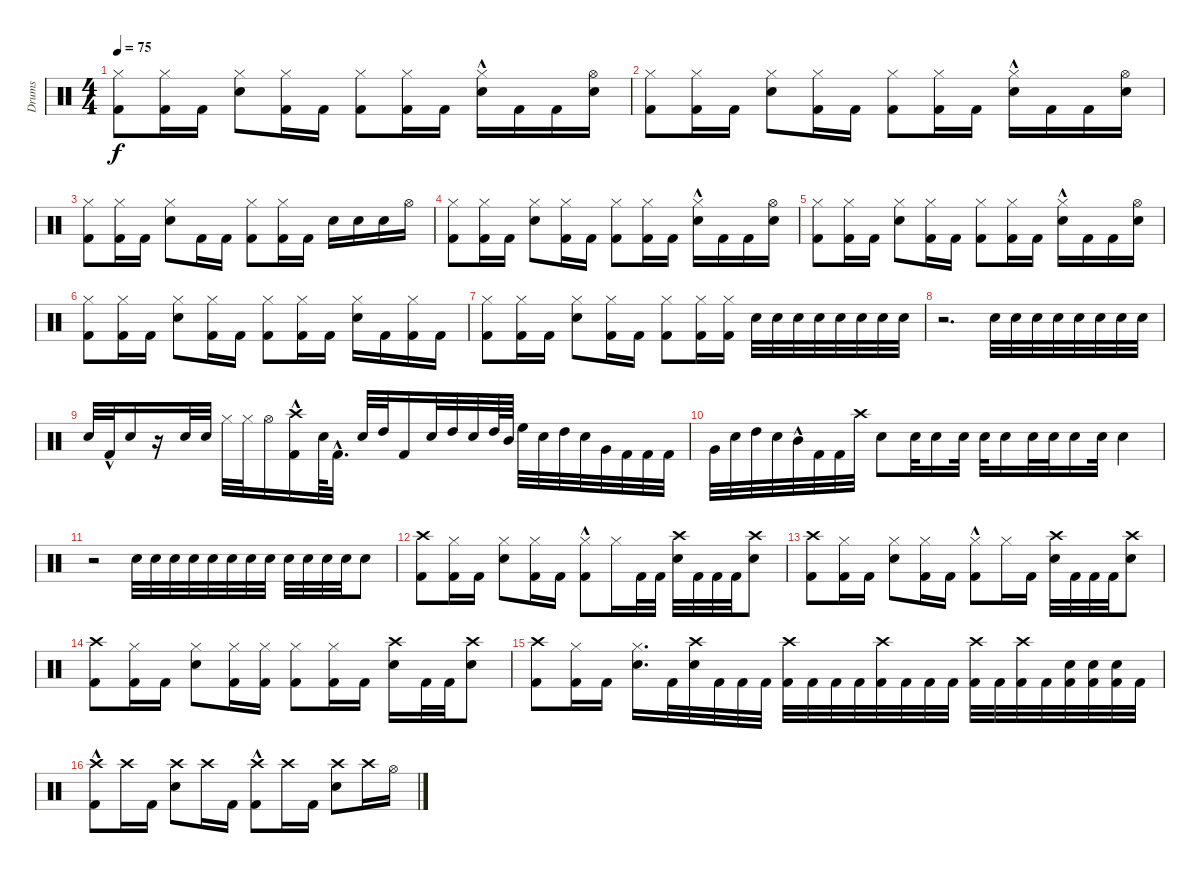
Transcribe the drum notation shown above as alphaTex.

\track ("Drums" "Drums") {instrument percussion}
\staff {score}
\articulation defaults
\ts (4 4)
\tempo 75
\clef neutral
\ks c
("Hi-Hat (closed)" "Kick (hit) 2").8{dy f} ("Hi-Hat (closed)" "Kick (hit) 2").16 "Kick (hit) 2".16 ("Hi-Hat (closed)" "Snare (hit) 2").8 ("Hi-Hat (closed)" "Kick (hit) 2").16 "Kick (hit) 2".16 ("Hi-Hat (closed)" "Kick (hit) 2").8 ("Hi-Hat (closed)" "Kick (hit) 2").16 "Kick (hit) 2".16 ("Snare (hit) 2"{hac} "Hi-Hat (closed)"{hac}).16 "Kick (hit) 2".16 "Kick (hit) 2".16 ("Snare (hit) 2" "Hi-Hat (open)").16 |
("Hi-Hat (closed)" "Kick (hit) 2").8 ("Hi-Hat (closed)" "Kick (hit) 2").16 "Kick (hit) 2".16 ("Hi-Hat (closed)" "Snare (hit) 2").8 ("Hi-Hat (closed)" "Kick (hit) 2").16 "Kick (hit) 2".16 ("Hi-Hat (closed)" "Kick (hit) 2").8 ("Hi-Hat (closed)" "Kick (hit) 2").16 "Kick (hit) 2".16 ("Snare (hit) 2"{hac} "Hi-Hat (closed)"{hac}).16 "Kick (hit) 2".16 "Kick (hit) 2".16 ("Snare (hit) 2" "Hi-Hat (open)").16 |
("Hi-Hat (closed)" "Kick (hit) 2").8 ("Hi-Hat (closed)" "Kick (hit) 2").16 "Kick (hit) 2".16 ("Snare (hit) 2" "Hi-Hat (closed)").8 "Kick (hit) 2".16 "Kick (hit) 2".16 ("Hi-Hat (closed)" "Kick (hit) 2").8 ("Kick (hit) 2" "Hi-Hat (closed)").16 "Kick (hit) 2".16 "Snare (hit) 2".16 "Snare (hit) 2".16 "Snare (hit) 2".16 "Hi-Hat (open)".16 |
("Hi-Hat (closed)" "Kick (hit) 2").8 ("Hi-Hat (closed)" "Kick (hit) 2").16 "Kick (hit) 2".16 ("Hi-Hat (closed)" "Snare (hit) 2").8 ("Hi-Hat (closed)" "Kick (hit) 2").16 "Kick (hit) 2".16 ("Hi-Hat (closed)" "Kick (hit) 2").8 ("Hi-Hat (closed)" "Kick (hit) 2").16 "Kick (hit) 2".16 ("Snare (hit) 2"{hac} "Hi-Hat (closed)"{hac}).16 "Kick (hit) 2".16 "Kick (hit) 2".16 ("Snare (hit) 2" "Hi-Hat (open)").16 |
("Hi-Hat (closed)" "Kick (hit) 2").8 ("Hi-Hat (closed)" "Kick (hit) 2").16 "Kick (hit) 2".16 ("Hi-Hat (closed)" "Snare (hit) 2").8 ("Hi-Hat (closed)" "Kick (hit) 2").16 "Kick (hit) 2".16 ("Hi-Hat (closed)" "Kick (hit) 2").8 ("Hi-Hat (closed)" "Kick (hit) 2").16 "Kick (hit) 2".16 ("Snare (hit) 2"{hac} "Hi-Hat (closed)"{hac}).16 "Kick (hit) 2".16 "Kick (hit) 2".16 ("Snare (hit) 2" "Hi-Hat (open)").16 |
("Hi-Hat (closed)" "Kick (hit) 2").8 ("Hi-Hat (closed)" "Kick (hit) 2").16 "Kick (hit) 2".16 ("Hi-Hat (closed)" "Snare (hit) 2").8 ("Hi-Hat (closed)" "Kick (hit) 2").16 "Kick (hit) 2".16 ("Hi-Hat (closed)" "Kick (hit) 2").8 ("Hi-Hat (closed)" "Kick (hit) 2").16 "Kick (hit) 2".16 ("Hi-Hat (closed)" "Snare (hit) 2").16 "Kick (hit) 2".16 ("Hi-Hat (closed)" "Kick (hit) 2").16 "Kick (hit) 2".16 |
("Hi-Hat (closed)" "Kick (hit) 2").8 ("Hi-Hat (closed)" "Kick (hit) 2").16 "Kick (hit) 2".16 ("Hi-Hat (closed)" "Snare (hit) 2").8 ("Hi-Hat (closed)" "Kick (hit) 2").16 "Kick (hit) 2".16 ("Hi-Hat (closed)" "Kick (hit) 2").8 ("Kick (hit) 2" "Hi-Hat (closed)").16 ("Kick (hit) 2" "Hi-Hat (closed)").16 "Snare (hit) 2".32 "Snare (hit) 2".32 "Snare (hit) 2".32 "Snare (hit) 2".32 "Snare (hit) 2".32 "Snare (hit) 2".32 "Snare (hit) 2".32 "Snare (hit) 2".32 |
r.2{d} "Snare (hit) 2".32 "Snare (hit) 2".32 "Snare (hit) 2".32 "Snare (hit) 2".32 "Snare (hit) 2".32 "Snare (hit) 2".32 "Snare (hit) 2".32 "Snare (hit) 2".32 |
"Snare (hit) 2".32 "Kick (hit) 2"{hac}.32 "Snare (hit) 2".16 r.16 "Snare (hit) 2".32 "Snare (hit) 2".32 "Hi-Hat (closed)".32 "Hi-Hat (closed)".32 "Hi-Hat (open)".16 ("Crash high (hit)" "Kick (hit) 2"{hac}).16 "Snare (hit) 2".64 "Kick (hit) 2"{hac}.32{d} "Snare (hit) 2".32 "High Tom (hit)".32 "Kick (hit) 2".16 "Snare (hit) 2".32 "High Tom (hit)".32 "Snare (hit) 2".32 "High Tom (hit)".64 "Mid Tom (hit)".64 "High Floor Tom (hit)".32 "Snare (hit) 2".32 "High Tom (hit)".32 "Snare (hit) 2".32 "Very Low Tom (hit)".32 "Kick (hit) 2".32 "Kick (hit) 2".32 "Kick (hit) 2".32 |
"Very Low Tom (hit)".32 "Snare (hit) 2".32 "High Tom (hit)".32 "Snare (hit) 2".32 "Mid Tom (hit)"{hac}.32 "Kick (hit) 2".32 "Kick (hit) 2".32 "Crash high (hit)".32 "Snare (hit) 2".8 "Snare (hit) 2".32 "Snare (hit) 2".16 "Snare (hit) 2".32 "Snare (hit) 2".32 "Snare (hit) 2".16 "Snare (hit) 2".32 "Snare (hit) 2".32 "Snare (hit) 2".16 "Snare (hit) 2".32 "Snare (hit) 2".4 |
r.2 "Snare (hit) 2".32 "Snare (hit) 2".32 "Snare (hit) 2".32 "Snare (hit) 2".32 "Snare (hit) 2".32 "Snare (hit) 2".32 "Snare (hit) 2".32 "Snare (hit) 2".32 "Snare (hit) 2".32 "Snare (hit) 2".32 "Snare (hit) 2".32 "Snare (hit) 2".32 "Snare (hit) 2".8 |
("Kick (hit) 2" "Crash high (hit)").8 ("Kick (hit) 2" "Hi-Hat (closed)").16 "Kick (hit) 2".16 ("Hi-Hat (closed)" "Snare (hit) 2").8 ("Kick (hit) 2" "Hi-Hat (closed)").16 "Kick (hit) 2".16 ("Kick (hit) 2"{hac} "Hi-Hat (closed)").8 "Hi-Hat (closed)".16 "Kick (hit) 2".32 "Kick (hit) 2".32 ("Crash high (hit)" "Snare (hit) 2").32 "Kick (hit) 2".32 "Kick (hit) 2".32 "Kick (hit) 2".32 ("Crash high (hit)" "Snare (hit) 2").8 |
("Kick (hit) 2" "Crash high (hit)").8 ("Kick (hit) 2" "Hi-Hat (closed)").16 "Kick (hit) 2".16 ("Hi-Hat (closed)" "Snare (hit) 2").8 ("Hi-Hat (closed)" "Kick (hit) 2").16 "Kick (hit) 2".16 ("Kick (hit) 2"{hac} "Hi-Hat (closed)").8 "Hi-Hat (closed)".16 "Kick (hit) 2".16 ("Crash high (hit)" "Snare (hit) 2").32 "Kick (hit) 2".32 "Kick (hit) 2".32 "Kick (hit) 2".32 ("Crash high (hit)" "Snare (hit) 2").8 |
("Crash high (hit)" "Kick (hit) 2").8 ("Hi-Hat (closed)" "Kick (hit) 2").16 "Kick (hit) 2".16 ("Snare (hit) 2" "Hi-Hat (closed)").8 ("Hi-Hat (closed)" "Kick (hit) 2").16 ("Hi-Hat (closed)" "Kick (hit) 2").16 ("Hi-Hat (closed)" "Kick (hit) 2").8 ("Hi-Hat (closed)" "Kick (hit) 2").16 "Kick (hit) 2".16 ("Crash high (hit)" "Snare (hit) 2").16 "Kick (hit) 2".32 "Kick (hit) 2".32 ("Crash high (hit)" "Snare (hit) 2").8 |
("Crash high (hit)" "Kick (hit) 2").8 ("Hi-Hat (closed)" "Kick (hit) 2").16 "Kick (hit) 2".16 ("Hi-Hat (closed)" "Snare (hit) 2").16{d} "Kick (hit) 2".32 ("Snare (hit) 2" "Crash high (hit)").32 "Kick (hit) 2".32 "Kick (hit) 2".32 "Kick (hit) 2".32 ("Kick (hit) 2" "Crash high (hit)").32 "Kick (hit) 2".32 "Kick (hit) 2".32 "Kick (hit) 2".32 ("Kick (hit) 2" "Crash high (hit)").32 "Kick (hit) 2".32 "Kick (hit) 2".32 "Kick (hit) 2".32 ("Kick (hit) 2" "Crash high (hit)").32 "Kick (hit) 2".32 ("Kick (hit) 2" "Crash high (hit)").32 "Kick (hit) 2".32 ("Kick (hit) 2" "Snare (hit) 2").32 ("Kick (hit) 2" "Snare (hit) 2").32 ("Kick (hit) 2" "Snare (hit) 2").32 "Kick (hit) 2".32 |
("Crash high (hit)" "Kick (hit) 2"{hac}).8 "Crash high (hit)".16 "Kick (hit) 2".16 ("Crash high (hit)" "Snare (hit) 2").8 "Crash high (hit)".16 "Kick (hit) 2".16 ("Crash high (hit)" "Kick (hit) 2"{hac}).8 "Crash high (hit)".16 "Kick (hit) 2".16 ("Crash high (hit)" "Snare (hit) 2").8 "Crash high (hit)".16 "Hi-Hat (open)".16
